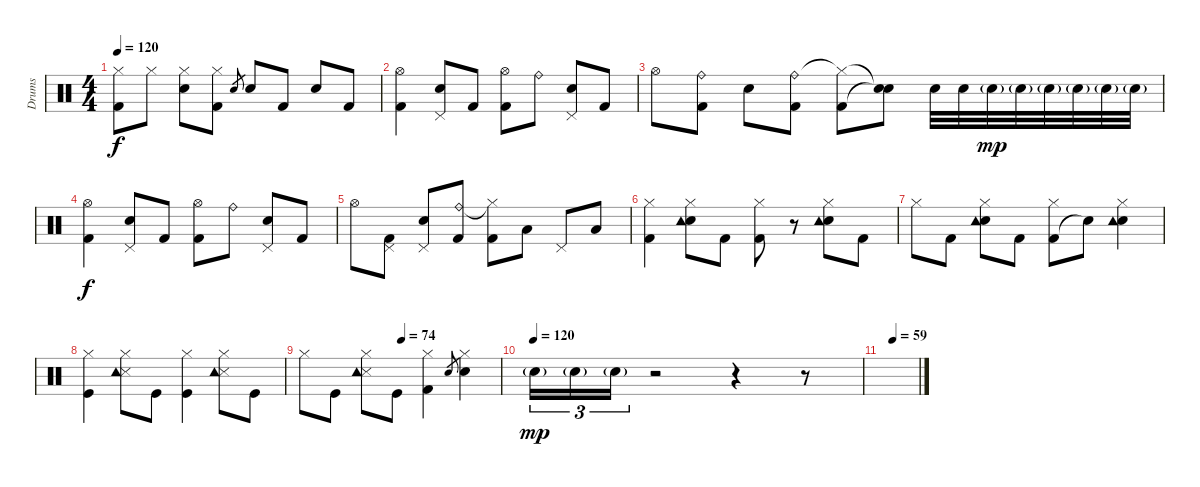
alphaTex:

\track ("Drums" "Drums") {instrument percussion}
\staff {score}
\articulation defaults
\ts (4 4)
\tempo 120
\clef neutral
\ks c
("Kick (hit) 2" "Hi-Hat (closed)").8{dy f} "Hi-Hat (closed)".8 ("Snare (hit) 2" "Hi-Hat (closed)").8 ("Kick (hit) 2" "Hi-Hat (closed)").8 "Snare (hit) 2".8{gr} "Snare (hit) 2".8 "Kick (hit) 2".8 "Snare (hit) 2".8 "Kick (hit) 2".8 |
("Kick (hit) 2" "Hi-Hat (open)").4 ("Snare (hit) 2" "Pedal Hi-Hat (hit)").8 "Kick (hit) 2".8 ("Kick (hit) 2" "Hi-Hat (open)").8 "Ride (bell)".8 ("Snare (hit) 2" "Pedal Hi-Hat (hit)").8 "Kick (hit) 2".8 |
"Hi-Hat (open)".8 ("Kick (hit) 2" "Ride (bell)").8 "Snare (hit) 2".8 ("Kick (hit) 2" "Ride (bell)").8 ("Kick (hit) 2" "Hi-Hat (closed)"{t}).8 ("Snare (hit)"{t} "Snare (hit)"{t}).8 "Snare (hit) 2".32 "Snare (hit) 2".32 "Snare (hit) 2"{g}.32{dy mp} "Snare (hit) 2"{g}.32 "Snare (hit) 2"{g}.32 "Snare (hit) 2"{g}.32 "Snare (hit) 2"{g}.32 "Snare (hit) 2"{g}.32 |
("Kick (hit) 2" "Hi-Hat (open)").4{dy f} ("Snare (hit) 2" "Pedal Hi-Hat (hit)").8 "Kick (hit) 2".8 ("Kick (hit) 2" "Hi-Hat (open)").8 "Ride (bell)".8 ("Snare (hit) 2" "Pedal Hi-Hat (hit)").8 "Kick (hit) 2".8 |
"Hi-Hat (open)".8 ("Kick (hit) 2" "Pedal Hi-Hat (hit)").8 ("Snare (hit) 2" "Pedal Hi-Hat (hit)").8 ("Kick (hit) 2" "Ride (bell)").8 ("Kick (hit) 2" "Hi-Hat (closed)"{t}).8 "Low Tom (hit)".8 "Pedal Hi-Hat (hit)".8 "Low Floor Tom (hit)".8 |
("Kick (hit) 2" "Hi-Hat (closed)").4 ("Snare (hit) 2" "Hi-Hat (closed)" "Tambourine (hit)").8 "Kick (hit) 2".8 ("Kick (hit) 2" "Hi-Hat (closed)").8 r.8 ("Snare (hit) 2" "Hi-Hat (closed)" "Tambourine (hit)").8 "Kick (hit) 2".8 |
"Hi-Hat (closed)".8 "Kick (hit) 2".8 ("Snare (hit) 2" "Hi-Hat (closed)" "Tambourine (hit)").8 "Kick (hit) 2".8 ("Kick (hit) 2" "Hi-Hat (closed)").8 "Snare (hit)"{t}.8 ("Snare (hit) 2" "Hi-Hat (closed)" "Tambourine (hit)").4 |
("Kick (hit)" "Hi-Hat (closed)").4 ("Snare (side stick) 3" "Hi-Hat (closed)" "Tambourine (hit)").8 "Kick (hit)".8 ("Kick (hit)" "Hi-Hat (closed)").4 ("Snare (side stick) 3" "Hi-Hat (closed)" "Tambourine (hit)").8 "Kick (hit)".8 |
\tempo (74 0.5)
"Hi-Hat (closed)".8 "Kick (hit)".8 ("Snare (side stick) 3" "Hi-Hat (closed)" "Tambourine (hit)").8 "Kick (hit)".8 ("Kick (hit) 2" "Hi-Hat (closed)").4 "Snare (hit) 2".8{gr} ("Snare (hit) 2" "Hi-Hat (closed)").4 |
\tempo (120)
"Snare (hit) 2"{g}.16{tu (3 2) dy mp} "Snare (hit) 2"{g}.16{tu (3 2)} "Snare (hit) 2"{g}.16{tu (3 2)} r.2 r.4 r.8 |
\tempo (59 0.3125)
